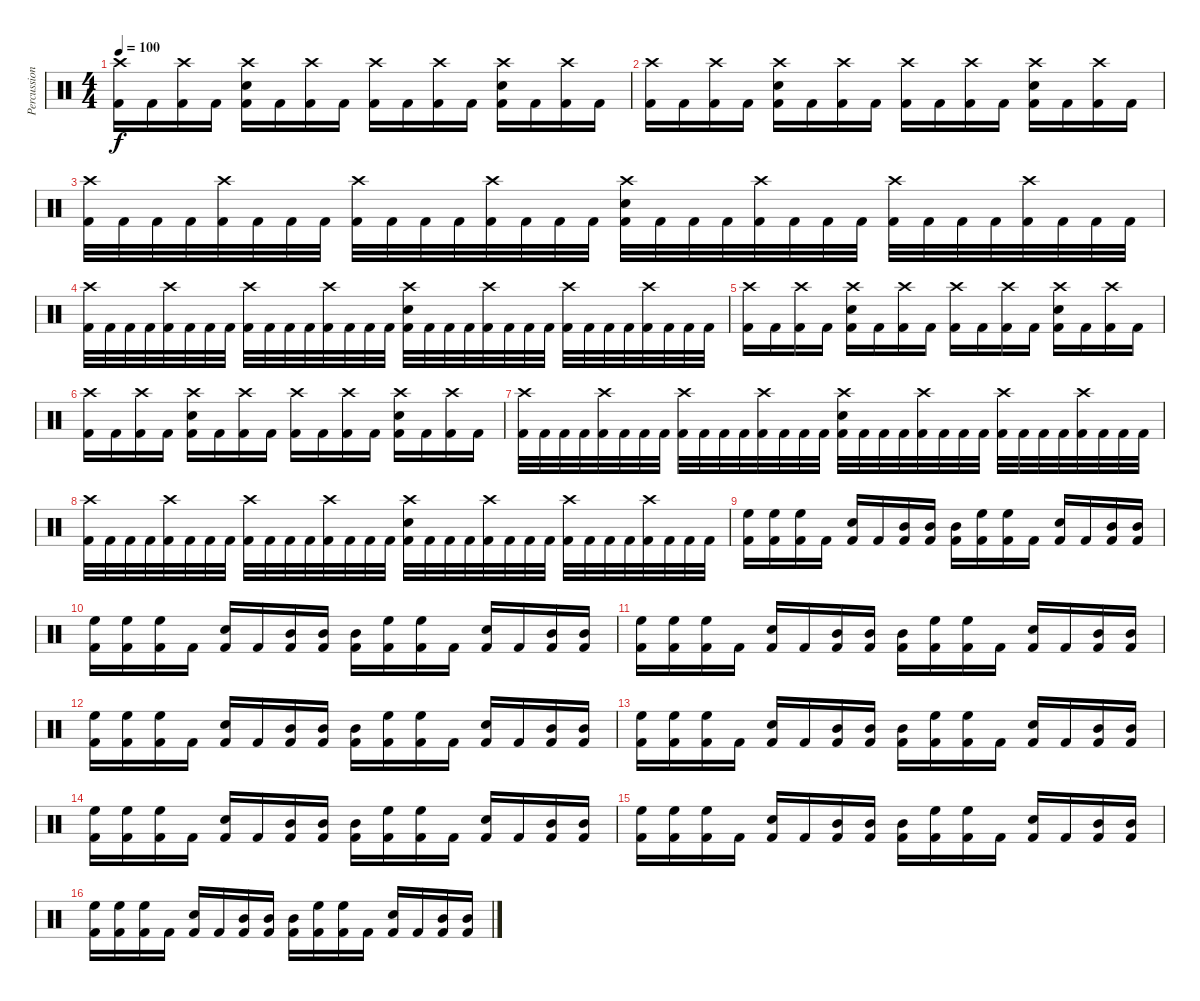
\track ("Percussion" "Percussion") {instrument percussion}
\staff {score}
\articulation defaults
\ts (4 4)
\tempo 100
\clef neutral
\ks c
("Crash high (hit)" "Kick (hit) 2").16{dy f} "Kick (hit) 2".16 ("Crash high (hit)" "Kick (hit) 2").16 "Kick (hit) 2".16 ("Crash high (hit)" "Electric Snare (hit)" "Kick (hit) 2").16 "Kick (hit) 2".16 ("Crash high (hit)" "Kick (hit) 2").16 "Kick (hit) 2".16 ("Crash high (hit)" "Kick (hit) 2").16 "Kick (hit) 2".16 ("Crash high (hit)" "Kick (hit) 2").16 "Kick (hit) 2".16 ("Crash high (hit)" "Electric Snare (hit)" "Kick (hit) 2").16 "Kick (hit) 2".16 ("Crash high (hit)" "Kick (hit) 2").16 "Kick (hit) 2".16 |
("Crash high (hit)" "Kick (hit) 2").16 "Kick (hit) 2".16 ("Crash high (hit)" "Kick (hit) 2").16 "Kick (hit) 2".16 ("Crash high (hit)" "Electric Snare (hit)" "Kick (hit) 2").16 "Kick (hit) 2".16 ("Crash high (hit)" "Kick (hit) 2").16 "Kick (hit) 2".16 ("Crash high (hit)" "Kick (hit) 2").16 "Kick (hit) 2".16 ("Crash high (hit)" "Kick (hit) 2").16 "Kick (hit) 2".16 ("Crash high (hit)" "Electric Snare (hit)" "Kick (hit) 2").16 "Kick (hit) 2".16 ("Crash high (hit)" "Kick (hit) 2").16 "Kick (hit) 2".16 |
("Crash high (hit)" "Kick (hit) 2").32 "Kick (hit) 2".32 "Kick (hit) 2".32 "Kick (hit) 2".32 ("Crash high (hit)" "Kick (hit) 2").32 "Kick (hit) 2".32 "Kick (hit) 2".32 "Kick (hit) 2".32 ("Crash high (hit)" "Kick (hit) 2").32 "Kick (hit) 2".32 "Kick (hit) 2".32 "Kick (hit) 2".32 ("Crash high (hit)" "Kick (hit) 2").32 "Kick (hit) 2".32 "Kick (hit) 2".32 "Kick (hit) 2".32 ("Crash high (hit)" "Electric Snare (hit)" "Kick (hit) 2").32 "Kick (hit) 2".32 "Kick (hit) 2".32 "Kick (hit) 2".32 ("Crash high (hit)" "Kick (hit) 2").32 "Kick (hit) 2".32 "Kick (hit) 2".32 "Kick (hit) 2".32 ("Crash high (hit)" "Kick (hit) 2").32 "Kick (hit) 2".32 "Kick (hit) 2".32 "Kick (hit) 2".32 ("Crash high (hit)" "Kick (hit) 2").32 "Kick (hit) 2".32 "Kick (hit) 2".32 "Kick (hit) 2".32 |
("Crash high (hit)" "Kick (hit) 2").32 "Kick (hit) 2".32 "Kick (hit) 2".32 "Kick (hit) 2".32 ("Crash high (hit)" "Kick (hit) 2").32 "Kick (hit) 2".32 "Kick (hit) 2".32 "Kick (hit) 2".32 ("Crash high (hit)" "Kick (hit) 2").32 "Kick (hit) 2".32 "Kick (hit) 2".32 "Kick (hit) 2".32 ("Crash high (hit)" "Kick (hit) 2").32 "Kick (hit) 2".32 "Kick (hit) 2".32 "Kick (hit) 2".32 ("Crash high (hit)" "Electric Snare (hit)" "Kick (hit) 2").32 "Kick (hit) 2".32 "Kick (hit) 2".32 "Kick (hit) 2".32 ("Crash high (hit)" "Kick (hit) 2").32 "Kick (hit) 2".32 "Kick (hit) 2".32 "Kick (hit) 2".32 ("Crash high (hit)" "Kick (hit) 2").32 "Kick (hit) 2".32 "Kick (hit) 2".32 "Kick (hit) 2".32 ("Crash high (hit)" "Kick (hit) 2").32 "Kick (hit) 2".32 "Kick (hit) 2".32 "Kick (hit) 2".32 |
("Crash high (hit)" "Kick (hit) 2").16 "Kick (hit) 2".16 ("Crash high (hit)" "Kick (hit) 2").16 "Kick (hit) 2".16 ("Crash high (hit)" "Electric Snare (hit)" "Kick (hit) 2").16 "Kick (hit) 2".16 ("Crash high (hit)" "Kick (hit) 2").16 "Kick (hit) 2".16 ("Crash high (hit)" "Kick (hit) 2").16 "Kick (hit) 2".16 ("Crash high (hit)" "Kick (hit) 2").16 "Kick (hit) 2".16 ("Crash high (hit)" "Electric Snare (hit)" "Kick (hit) 2").16 "Kick (hit) 2".16 ("Crash high (hit)" "Kick (hit) 2").16 "Kick (hit) 2".16 |
("Crash high (hit)" "Kick (hit) 2").16 "Kick (hit) 2".16 ("Crash high (hit)" "Kick (hit) 2").16 "Kick (hit) 2".16 ("Crash high (hit)" "Electric Snare (hit)" "Kick (hit) 2").16 "Kick (hit) 2".16 ("Crash high (hit)" "Kick (hit) 2").16 "Kick (hit) 2".16 ("Crash high (hit)" "Kick (hit) 2").16 "Kick (hit) 2".16 ("Crash high (hit)" "Kick (hit) 2").16 "Kick (hit) 2".16 ("Crash high (hit)" "Electric Snare (hit)" "Kick (hit) 2").16 "Kick (hit) 2".16 ("Crash high (hit)" "Kick (hit) 2").16 "Kick (hit) 2".16 |
("Crash high (hit)" "Kick (hit) 2").32 "Kick (hit) 2".32 "Kick (hit) 2".32 "Kick (hit) 2".32 ("Crash high (hit)" "Kick (hit) 2").32 "Kick (hit) 2".32 "Kick (hit) 2".32 "Kick (hit) 2".32 ("Crash high (hit)" "Kick (hit) 2").32 "Kick (hit) 2".32 "Kick (hit) 2".32 "Kick (hit) 2".32 ("Crash high (hit)" "Kick (hit) 2").32 "Kick (hit) 2".32 "Kick (hit) 2".32 "Kick (hit) 2".32 ("Crash high (hit)" "Electric Snare (hit)" "Kick (hit) 2").32 "Kick (hit) 2".32 "Kick (hit) 2".32 "Kick (hit) 2".32 ("Crash high (hit)" "Kick (hit) 2").32 "Kick (hit) 2".32 "Kick (hit) 2".32 "Kick (hit) 2".32 ("Crash high (hit)" "Kick (hit) 2").32 "Kick (hit) 2".32 "Kick (hit) 2".32 "Kick (hit) 2".32 ("Crash high (hit)" "Kick (hit) 2").32 "Kick (hit) 2".32 "Kick (hit) 2".32 "Kick (hit) 2".32 |
("Crash high (hit)" "Kick (hit) 2").32 "Kick (hit) 2".32 "Kick (hit) 2".32 "Kick (hit) 2".32 ("Crash high (hit)" "Kick (hit) 2").32 "Kick (hit) 2".32 "Kick (hit) 2".32 "Kick (hit) 2".32 ("Crash high (hit)" "Kick (hit) 2").32 "Kick (hit) 2".32 "Kick (hit) 2".32 "Kick (hit) 2".32 ("Crash high (hit)" "Kick (hit) 2").32 "Kick (hit) 2".32 "Kick (hit) 2".32 "Kick (hit) 2".32 ("Crash high (hit)" "Electric Snare (hit)" "Kick (hit) 2").32 "Kick (hit) 2".32 "Kick (hit) 2".32 "Kick (hit) 2".32 ("Crash high (hit)" "Kick (hit) 2").32 "Kick (hit) 2".32 "Kick (hit) 2".32 "Kick (hit) 2".32 ("Crash high (hit)" "Kick (hit) 2").32 "Kick (hit) 2".32 "Kick (hit) 2".32 "Kick (hit) 2".32 ("Crash high (hit)" "Kick (hit) 2").32 "Kick (hit) 2".32 "Kick (hit) 2".32 "Kick (hit) 2".32 |
("High Floor Tom (hit)" "Kick (hit) 2").16 ("High Floor Tom (hit)" "Kick (hit) 2").16 ("High Floor Tom (hit)" "Kick (hit) 2").16 "Kick (hit) 2".16 ("Electric Snare (hit)" "Kick (hit) 2").16 "Kick (hit) 2".16 ("Mid Tom (hit)" "Kick (hit) 2").16 ("Mid Tom (hit)" "Kick (hit) 2").16 ("Mid Tom (hit)" "Kick (hit) 2").16 ("High Floor Tom (hit)" "Kick (hit) 2").16 ("High Floor Tom (hit)" "Kick (hit) 2").16 "Kick (hit) 2".16 ("Electric Snare (hit)" "Kick (hit) 2").16 "Kick (hit) 2".16 ("Mid Tom (hit)" "Kick (hit) 2").16 ("Mid Tom (hit)" "Kick (hit) 2").16 |
("High Floor Tom (hit)" "Kick (hit) 2").16 ("High Floor Tom (hit)" "Kick (hit) 2").16 ("High Floor Tom (hit)" "Kick (hit) 2").16 "Kick (hit) 2".16 ("Electric Snare (hit)" "Kick (hit) 2").16 "Kick (hit) 2".16 ("Mid Tom (hit)" "Kick (hit) 2").16 ("Mid Tom (hit)" "Kick (hit) 2").16 ("Mid Tom (hit)" "Kick (hit) 2").16 ("High Floor Tom (hit)" "Kick (hit) 2").16 ("High Floor Tom (hit)" "Kick (hit) 2").16 "Kick (hit) 2".16 ("Electric Snare (hit)" "Kick (hit) 2").16 "Kick (hit) 2".16 ("Mid Tom (hit)" "Kick (hit) 2").16 ("Mid Tom (hit)" "Kick (hit) 2").16 |
("High Floor Tom (hit)" "Kick (hit) 2").16 ("High Floor Tom (hit)" "Kick (hit) 2").16 ("High Floor Tom (hit)" "Kick (hit) 2").16 "Kick (hit) 2".16 ("Electric Snare (hit)" "Kick (hit) 2").16 "Kick (hit) 2".16 ("Mid Tom (hit)" "Kick (hit) 2").16 ("Mid Tom (hit)" "Kick (hit) 2").16 ("Mid Tom (hit)" "Kick (hit) 2").16 ("High Floor Tom (hit)" "Kick (hit) 2").16 ("High Floor Tom (hit)" "Kick (hit) 2").16 "Kick (hit) 2".16 ("Electric Snare (hit)" "Kick (hit) 2").16 "Kick (hit) 2".16 ("Mid Tom (hit)" "Kick (hit) 2").16 ("Mid Tom (hit)" "Kick (hit) 2").16 |
("High Floor Tom (hit)" "Kick (hit) 2").16 ("High Floor Tom (hit)" "Kick (hit) 2").16 ("High Floor Tom (hit)" "Kick (hit) 2").16 "Kick (hit) 2".16 ("Electric Snare (hit)" "Kick (hit) 2").16 "Kick (hit) 2".16 ("Mid Tom (hit)" "Kick (hit) 2").16 ("Mid Tom (hit)" "Kick (hit) 2").16 ("Mid Tom (hit)" "Kick (hit) 2").16 ("High Floor Tom (hit)" "Kick (hit) 2").16 ("High Floor Tom (hit)" "Kick (hit) 2").16 "Kick (hit) 2".16 ("Electric Snare (hit)" "Kick (hit) 2").16 "Kick (hit) 2".16 ("Mid Tom (hit)" "Kick (hit) 2").16 ("Mid Tom (hit)" "Kick (hit) 2").16 |
("High Floor Tom (hit)" "Kick (hit) 2").16 ("High Floor Tom (hit)" "Kick (hit) 2").16 ("High Floor Tom (hit)" "Kick (hit) 2").16 "Kick (hit) 2".16 ("Electric Snare (hit)" "Kick (hit) 2").16 "Kick (hit) 2".16 ("Mid Tom (hit)" "Kick (hit) 2").16 ("Mid Tom (hit)" "Kick (hit) 2").16 ("Mid Tom (hit)" "Kick (hit) 2").16 ("High Floor Tom (hit)" "Kick (hit) 2").16 ("High Floor Tom (hit)" "Kick (hit) 2").16 "Kick (hit) 2".16 ("Electric Snare (hit)" "Kick (hit) 2").16 "Kick (hit) 2".16 ("Mid Tom (hit)" "Kick (hit) 2").16 ("Mid Tom (hit)" "Kick (hit) 2").16 |
("High Floor Tom (hit)" "Kick (hit) 2").16 ("High Floor Tom (hit)" "Kick (hit) 2").16 ("High Floor Tom (hit)" "Kick (hit) 2").16 "Kick (hit) 2".16 ("Electric Snare (hit)" "Kick (hit) 2").16 "Kick (hit) 2".16 ("Mid Tom (hit)" "Kick (hit) 2").16 ("Mid Tom (hit)" "Kick (hit) 2").16 ("Mid Tom (hit)" "Kick (hit) 2").16 ("High Floor Tom (hit)" "Kick (hit) 2").16 ("High Floor Tom (hit)" "Kick (hit) 2").16 "Kick (hit) 2".16 ("Electric Snare (hit)" "Kick (hit) 2").16 "Kick (hit) 2".16 ("Mid Tom (hit)" "Kick (hit) 2").16 ("Mid Tom (hit)" "Kick (hit) 2").16 |
("High Floor Tom (hit)" "Kick (hit) 2").16 ("High Floor Tom (hit)" "Kick (hit) 2").16 ("High Floor Tom (hit)" "Kick (hit) 2").16 "Kick (hit) 2".16 ("Electric Snare (hit)" "Kick (hit) 2").16 "Kick (hit) 2".16 ("Mid Tom (hit)" "Kick (hit) 2").16 ("Mid Tom (hit)" "Kick (hit) 2").16 ("Mid Tom (hit)" "Kick (hit) 2").16 ("High Floor Tom (hit)" "Kick (hit) 2").16 ("High Floor Tom (hit)" "Kick (hit) 2").16 "Kick (hit) 2".16 ("Electric Snare (hit)" "Kick (hit) 2").16 "Kick (hit) 2".16 ("Mid Tom (hit)" "Kick (hit) 2").16 ("Mid Tom (hit)" "Kick (hit) 2").16 |
("High Floor Tom (hit)" "Kick (hit) 2").16 ("High Floor Tom (hit)" "Kick (hit) 2").16 ("High Floor Tom (hit)" "Kick (hit) 2").16 "Kick (hit) 2".16 ("Electric Snare (hit)" "Kick (hit) 2").16 "Kick (hit) 2".16 ("Mid Tom (hit)" "Kick (hit) 2").16 ("Mid Tom (hit)" "Kick (hit) 2").16 ("Mid Tom (hit)" "Kick (hit) 2").16 ("High Floor Tom (hit)" "Kick (hit) 2").16 ("High Floor Tom (hit)" "Kick (hit) 2").16 "Kick (hit) 2".16 ("Electric Snare (hit)" "Kick (hit) 2").16 "Kick (hit) 2".16 ("Mid Tom (hit)" "Kick (hit) 2").16 ("Mid Tom (hit)" "Kick (hit) 2").16
